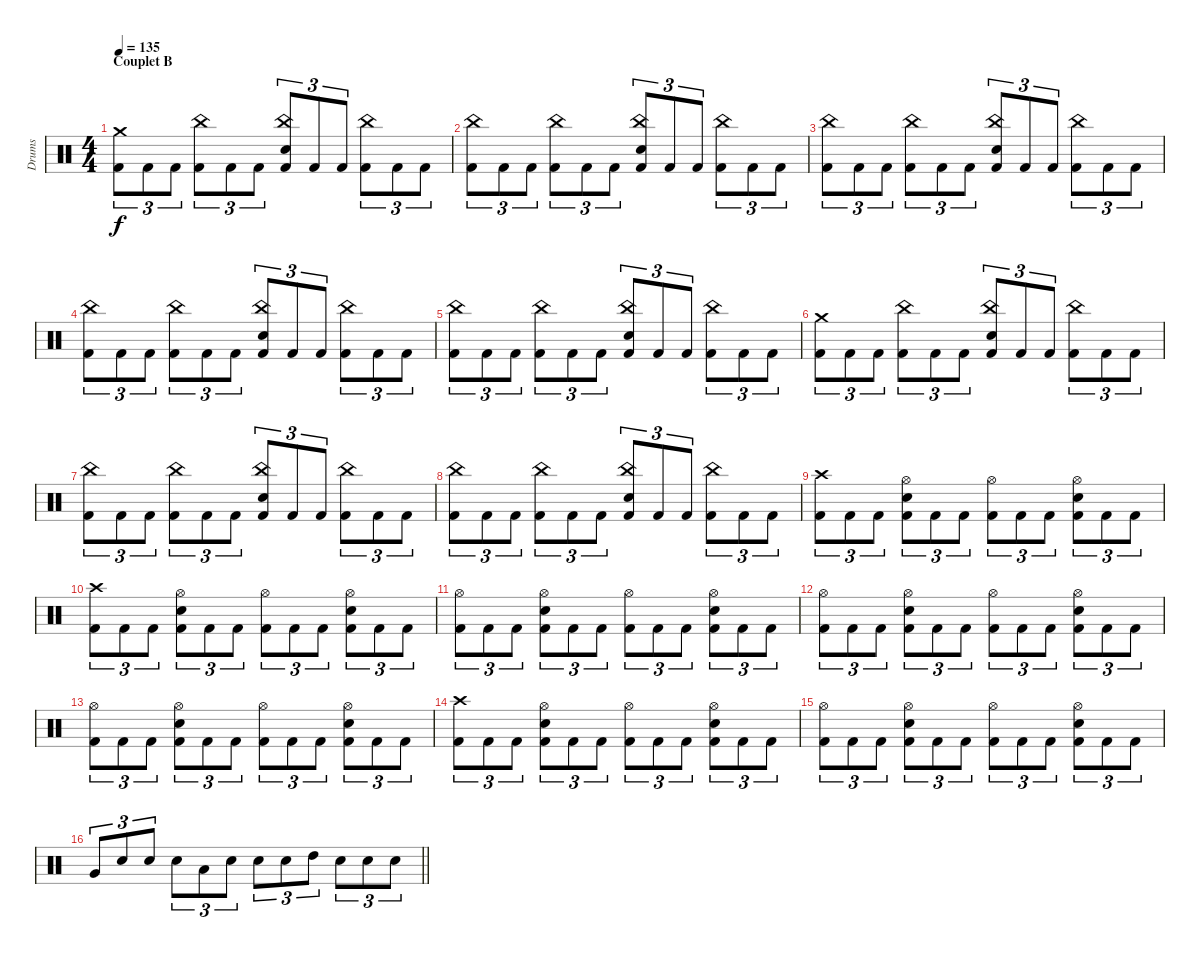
\track ("Drums" "Drums") {instrument percussion}
\staff {score}
\articulation defaults
\ts (4 4)
\section ("" "Couplet B")
\tempo 135
\clef neutral
\ks c
("Crash medium (hit)" "Kick (hit) 2").8{tu (3 2) dy f} "Kick (hit) 2".8{tu (3 2)} "Kick (hit) 2".8{tu (3 2)} ("China (hit)" "Kick (hit) 2").8{tu (3 2)} "Kick (hit) 2".8{tu (3 2)} "Kick (hit) 2".8{tu (3 2)} ("China (hit)" "Snare (hit) 2" "Kick (hit) 2").8{tu (3 2)} "Kick (hit) 2".8{tu (3 2)} "Kick (hit) 2".8{tu (3 2)} ("China (hit)" "Kick (hit) 2").8{tu (3 2)} "Kick (hit) 2".8{tu (3 2)} "Kick (hit) 2".8{tu (3 2)} |
("China (hit)" "Kick (hit) 2").8{tu (3 2)} "Kick (hit) 2".8{tu (3 2)} "Kick (hit) 2".8{tu (3 2)} ("China (hit)" "Kick (hit) 2").8{tu (3 2)} "Kick (hit) 2".8{tu (3 2)} "Kick (hit) 2".8{tu (3 2)} ("China (hit)" "Snare (hit) 2" "Kick (hit) 2").8{tu (3 2)} "Kick (hit) 2".8{tu (3 2)} "Kick (hit) 2".8{tu (3 2)} ("China (hit)" "Kick (hit) 2").8{tu (3 2)} "Kick (hit) 2".8{tu (3 2)} "Kick (hit) 2".8{tu (3 2)} |
("China (hit)" "Kick (hit) 2").8{tu (3 2)} "Kick (hit) 2".8{tu (3 2)} "Kick (hit) 2".8{tu (3 2)} ("China (hit)" "Kick (hit) 2").8{tu (3 2)} "Kick (hit) 2".8{tu (3 2)} "Kick (hit) 2".8{tu (3 2)} ("China (hit)" "Snare (hit) 2" "Kick (hit) 2").8{tu (3 2)} "Kick (hit) 2".8{tu (3 2)} "Kick (hit) 2".8{tu (3 2)} ("China (hit)" "Kick (hit) 2").8{tu (3 2)} "Kick (hit) 2".8{tu (3 2)} "Kick (hit) 2".8{tu (3 2)} |
("China (hit)" "Kick (hit) 2").8{tu (3 2)} "Kick (hit) 2".8{tu (3 2)} "Kick (hit) 2".8{tu (3 2)} ("China (hit)" "Kick (hit) 2").8{tu (3 2)} "Kick (hit) 2".8{tu (3 2)} "Kick (hit) 2".8{tu (3 2)} ("China (hit)" "Snare (hit) 2" "Kick (hit) 2").8{tu (3 2)} "Kick (hit) 2".8{tu (3 2)} "Kick (hit) 2".8{tu (3 2)} ("China (hit)" "Kick (hit) 2").8{tu (3 2)} "Kick (hit) 2".8{tu (3 2)} "Kick (hit) 2".8{tu (3 2)} |
("China (hit)" "Kick (hit) 2").8{tu (3 2)} "Kick (hit) 2".8{tu (3 2)} "Kick (hit) 2".8{tu (3 2)} ("China (hit)" "Kick (hit) 2").8{tu (3 2)} "Kick (hit) 2".8{tu (3 2)} "Kick (hit) 2".8{tu (3 2)} ("China (hit)" "Snare (hit) 2" "Kick (hit) 2").8{tu (3 2)} "Kick (hit) 2".8{tu (3 2)} "Kick (hit) 2".8{tu (3 2)} ("China (hit)" "Kick (hit) 2").8{tu (3 2)} "Kick (hit) 2".8{tu (3 2)} "Kick (hit) 2".8{tu (3 2)} |
("Crash medium (hit)" "Kick (hit) 2").8{tu (3 2)} "Kick (hit) 2".8{tu (3 2)} "Kick (hit) 2".8{tu (3 2)} ("China (hit)" "Kick (hit) 2").8{tu (3 2)} "Kick (hit) 2".8{tu (3 2)} "Kick (hit) 2".8{tu (3 2)} ("China (hit)" "Snare (hit) 2" "Kick (hit) 2").8{tu (3 2)} "Kick (hit) 2".8{tu (3 2)} "Kick (hit) 2".8{tu (3 2)} ("China (hit)" "Kick (hit) 2").8{tu (3 2)} "Kick (hit) 2".8{tu (3 2)} "Kick (hit) 2".8{tu (3 2)} |
("China (hit)" "Kick (hit) 2").8{tu (3 2)} "Kick (hit) 2".8{tu (3 2)} "Kick (hit) 2".8{tu (3 2)} ("China (hit)" "Kick (hit) 2").8{tu (3 2)} "Kick (hit) 2".8{tu (3 2)} "Kick (hit) 2".8{tu (3 2)} ("China (hit)" "Snare (hit) 2" "Kick (hit) 2").8{tu (3 2)} "Kick (hit) 2".8{tu (3 2)} "Kick (hit) 2".8{tu (3 2)} ("China (hit)" "Kick (hit) 2").8{tu (3 2)} "Kick (hit) 2".8{tu (3 2)} "Kick (hit) 2".8{tu (3 2)} |
("China (hit)" "Kick (hit) 2").8{tu (3 2)} "Kick (hit) 2".8{tu (3 2)} "Kick (hit) 2".8{tu (3 2)} ("China (hit)" "Kick (hit) 2").8{tu (3 2)} "Kick (hit) 2".8{tu (3 2)} "Kick (hit) 2".8{tu (3 2)} ("China (hit)" "Snare (hit) 2" "Kick (hit) 2").8{tu (3 2)} "Kick (hit) 2".8{tu (3 2)} "Kick (hit) 2".8{tu (3 2)} ("China (hit)" "Kick (hit) 2").8{tu (3 2)} "Kick (hit) 2".8{tu (3 2)} "Kick (hit) 2".8{tu (3 2)} |
("Crash high (hit)" "Kick (hit) 2").8{tu (3 2)} "Kick (hit) 2".8{tu (3 2)} "Kick (hit) 2".8{tu (3 2)} ("Hi-Hat (open)" "Snare (hit) 2" "Kick (hit) 2").8{tu (3 2)} "Kick (hit) 2".8{tu (3 2)} "Kick (hit) 2".8{tu (3 2)} ("Hi-Hat (open)" "Kick (hit) 2").8{tu (3 2)} "Kick (hit) 2".8{tu (3 2)} "Kick (hit) 2".8{tu (3 2)} ("Hi-Hat (open)" "Snare (hit) 2" "Kick (hit) 2").8{tu (3 2)} "Kick (hit) 2".8{tu (3 2)} "Kick (hit) 2".8{tu (3 2)} |
("Crash high (hit)" "Kick (hit) 2").8{tu (3 2)} "Kick (hit) 2".8{tu (3 2)} "Kick (hit) 2".8{tu (3 2)} ("Hi-Hat (open)" "Snare (hit) 2" "Kick (hit) 2").8{tu (3 2)} "Kick (hit) 2".8{tu (3 2)} "Kick (hit) 2".8{tu (3 2)} ("Hi-Hat (open)" "Kick (hit) 2").8{tu (3 2)} "Kick (hit) 2".8{tu (3 2)} "Kick (hit) 2".8{tu (3 2)} ("Hi-Hat (open)" "Snare (hit) 2" "Kick (hit) 2").8{tu (3 2)} "Kick (hit) 2".8{tu (3 2)} "Kick (hit) 2".8{tu (3 2)} |
("Hi-Hat (open)" "Kick (hit) 2").8{tu (3 2)} "Kick (hit) 2".8{tu (3 2)} "Kick (hit) 2".8{tu (3 2)} ("Hi-Hat (open)" "Snare (hit) 2" "Kick (hit) 2").8{tu (3 2)} "Kick (hit) 2".8{tu (3 2)} "Kick (hit) 2".8{tu (3 2)} ("Hi-Hat (open)" "Kick (hit) 2").8{tu (3 2)} "Kick (hit) 2".8{tu (3 2)} "Kick (hit) 2".8{tu (3 2)} ("Hi-Hat (open)" "Snare (hit) 2" "Kick (hit) 2").8{tu (3 2)} "Kick (hit) 2".8{tu (3 2)} "Kick (hit) 2".8{tu (3 2)} |
("Hi-Hat (open)" "Kick (hit) 2").8{tu (3 2)} "Kick (hit) 2".8{tu (3 2)} "Kick (hit) 2".8{tu (3 2)} ("Hi-Hat (open)" "Snare (hit) 2" "Kick (hit) 2").8{tu (3 2)} "Kick (hit) 2".8{tu (3 2)} "Kick (hit) 2".8{tu (3 2)} ("Hi-Hat (open)" "Kick (hit) 2").8{tu (3 2)} "Kick (hit) 2".8{tu (3 2)} "Kick (hit) 2".8{tu (3 2)} ("Hi-Hat (open)" "Snare (hit) 2" "Kick (hit) 2").8{tu (3 2)} "Kick (hit) 2".8{tu (3 2)} "Kick (hit) 2".8{tu (3 2)} |
("Hi-Hat (open)" "Kick (hit) 2").8{tu (3 2)} "Kick (hit) 2".8{tu (3 2)} "Kick (hit) 2".8{tu (3 2)} ("Hi-Hat (open)" "Snare (hit) 2" "Kick (hit) 2").8{tu (3 2)} "Kick (hit) 2".8{tu (3 2)} "Kick (hit) 2".8{tu (3 2)} ("Hi-Hat (open)" "Kick (hit) 2").8{tu (3 2)} "Kick (hit) 2".8{tu (3 2)} "Kick (hit) 2".8{tu (3 2)} ("Hi-Hat (open)" "Snare (hit) 2" "Kick (hit) 2").8{tu (3 2)} "Kick (hit) 2".8{tu (3 2)} "Kick (hit) 2".8{tu (3 2)} |
("Crash high (hit)" "Kick (hit) 2").8{tu (3 2)} "Kick (hit) 2".8{tu (3 2)} "Kick (hit) 2".8{tu (3 2)} ("Hi-Hat (open)" "Snare (hit) 2" "Kick (hit) 2").8{tu (3 2)} "Kick (hit) 2".8{tu (3 2)} "Kick (hit) 2".8{tu (3 2)} ("Hi-Hat (open)" "Kick (hit) 2").8{tu (3 2)} "Kick (hit) 2".8{tu (3 2)} "Kick (hit) 2".8{tu (3 2)} ("Hi-Hat (open)" "Snare (hit) 2" "Kick (hit) 2").8{tu (3 2)} "Kick (hit) 2".8{tu (3 2)} "Kick (hit) 2".8{tu (3 2)} |
("Hi-Hat (open)" "Kick (hit) 2").8{tu (3 2)} "Kick (hit) 2".8{tu (3 2)} "Kick (hit) 2".8{tu (3 2)} ("Hi-Hat (open)" "Snare (hit) 2" "Kick (hit) 2").8{tu (3 2)} "Kick (hit) 2".8{tu (3 2)} "Kick (hit) 2".8{tu (3 2)} ("Hi-Hat (open)" "Kick (hit) 2").8{tu (3 2)} "Kick (hit) 2".8{tu (3 2)} "Kick (hit) 2".8{tu (3 2)} ("Hi-Hat (open)" "Snare (hit) 2" "Kick (hit) 2").8{tu (3 2)} "Kick (hit) 2".8{tu (3 2)} "Kick (hit) 2".8{tu (3 2)} |
\barLineRight lightlight "Very Low Tom (hit)".8{tu (3 2)} "Snare (hit) 2".8{tu (3 2)} "Snare (hit) 2".8{tu (3 2)} "Snare (hit) 2".8{tu (3 2)} "Low Floor Tom (hit)".8{tu (3 2)} "Snare (hit) 2".8{tu (3 2)} "Snare (hit) 2".8{tu (3 2)} "Snare (hit) 2".8{tu (3 2)} "High Tom (hit)".8{tu (3 2)} "Snare (hit) 2".8{tu (3 2)} "Snare (hit) 2".8{tu (3 2)} "Snare (hit) 2".8{tu (3 2)}
